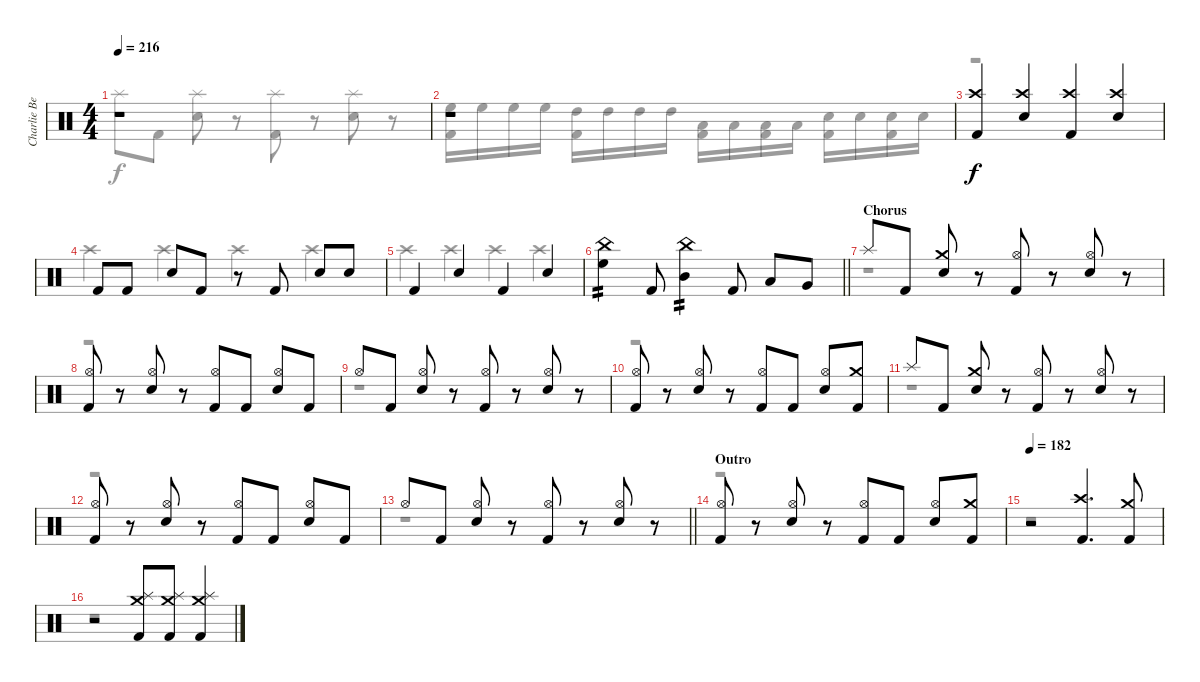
\track ("Charlie Benante" "Charlie Be") {instrument percussion}
\staff {score}
\articulation defaults
\voice
\ts (4 4)
\tempo 216
\clef neutral
\ks c
r.1{dy f} |
r.1 |
("Crash high (hit)" "Kick (hit) 2").4 ("Crash high (hit)" "Electric Snare (hit)").4 ("Crash high (hit)" "Kick (hit) 2").4 ("Crash high (hit)" "Electric Snare (hit)").4 |
"Kick (hit) 2".8 "Kick (hit) 2".8 "Electric Snare (hit)".8 "Kick (hit) 2".8 r.8 "Kick (hit) 2".8 "Electric Snare (hit)".8 "Electric Snare (hit)".8 |
"Kick (hit) 2".4 "Electric Snare (hit)".4 "Kick (hit) 2".4 "Electric Snare (hit)".4 |
\barLineRight lightlight
("China (hit)" "High Floor Tom (hit)").4{tp 2} "Kick (hit) 2".8 ("China (hit)" "Mid Tom (hit)").4{tp 2} "Kick (hit) 2".8 "Low Tom (hit)".8 "Very Low Tom (hit)".8 |
\section ("" "Chorus")
"Splash (hit)".8 "Kick (hit) 2".8 ("Crash medium (hit)" "Electric Snare (hit)").8 r.8 ("Hi-Hat (open)" "Kick (hit) 2").8 r.8 ("Hi-Hat (open)" "Electric Snare (hit)").8 r.8 |
("Hi-Hat (open)" "Kick (hit) 2").8 r.8 ("Hi-Hat (open)" "Electric Snare (hit)").8 r.8 ("Hi-Hat (open)" "Kick (hit) 2").8 "Kick (hit) 2".8 ("Hi-Hat (open)" "Electric Snare (hit)").8 "Kick (hit) 2".8 |
"Hi-Hat (open)".8 "Kick (hit) 2".8 ("Hi-Hat (open)" "Electric Snare (hit)").8 r.8 ("Hi-Hat (open)" "Kick (hit) 2").8 r.8 ("Hi-Hat (open)" "Electric Snare (hit)").8 r.8 |
("Hi-Hat (open)" "Kick (hit) 2").8 r.8 ("Hi-Hat (open)" "Electric Snare (hit)").8 r.8 ("Hi-Hat (open)" "Kick (hit) 2").8 "Kick (hit) 2".8 ("Hi-Hat (open)" "Electric Snare (hit)").8 ("Crash medium (hit)" "Kick (hit) 2").8 |
"Splash (hit)".8 "Kick (hit) 2".8 ("Crash medium (hit)" "Electric Snare (hit)").8 r.8 ("Hi-Hat (open)" "Kick (hit) 2").8 r.8 ("Hi-Hat (open)" "Electric Snare (hit)").8 r.8 |
("Hi-Hat (open)" "Kick (hit) 2").8 r.8 ("Hi-Hat (open)" "Electric Snare (hit)").8 r.8 ("Hi-Hat (open)" "Kick (hit) 2").8 "Kick (hit) 2".8 ("Hi-Hat (open)" "Electric Snare (hit)").8 "Kick (hit) 2".8 |
\barLineRight lightlight "Hi-Hat (open)".8 "Kick (hit) 2".8
("Hi-Hat (open)" "Electric Snare (hit)").8 r.8 ("Hi-Hat (open)" "Kick (hit) 2").8 r.8 ("Hi-Hat (open)" "Electric Snare (hit)").8 r.8 |
\section ("" "Outro")
("Hi-Hat (open)" "Kick (hit) 2").8 r.8 ("Hi-Hat (open)" "Electric Snare (hit)").8 r.8 ("Hi-Hat (open)" "Kick (hit) 2").8 "Kick (hit) 2".8 ("Hi-Hat (open)" "Electric Snare (hit)").8 ("Crash medium (hit)" "Kick (hit) 2").8 |
\tempo 182
r.2 ("Crash high (hit)" "Kick (hit) 2").4{d} ("Crash medium (hit)" "Kick (hit) 2").8 |
r.2 ("Crash medium (hit)" "Splash (hit)" "Kick (hit) 2").8 ("Crash medium (hit)" "Splash (hit)" "Kick (hit) 2").8 ("Crash medium (hit)" "Splash (hit)" "Kick (hit) 2").4
\voice
\clef neutral
\ottava regular
\simile none
\ks c "Splash (hit)".8{dy f} "Kick (hit) 2".8
("Splash (hit)" "Electric Snare (hit)").8 r.8 ("Splash (hit)" "Kick (hit) 2").8 r.8 ("Splash (hit)" "Electric Snare (hit)").8 r.8 |
("High Floor Tom (hit)" "Kick (hit) 2").16 "High Floor Tom (hit)".16 "High Floor Tom (hit)".16 "High Floor Tom (hit)".16 ("High Tom (hit)" "Kick (hit) 2").16 "High Tom (hit)".16 "High Tom (hit)".16 "High Tom (hit)".16 ("Low Tom (hit)" "Kick (hit) 2").16 "Low Tom (hit)".16 ("Low Tom (hit)" "Kick (hit) 2").16 "Low Tom (hit)".16 ("Electric Snare (hit)" "Kick (hit) 2").16 "Electric Snare (hit)".16 ("Electric Snare (hit)" "Kick (hit) 2").16 "Electric Snare (hit)".16 |
r.1 |
"Crash high (hit)".4 "Crash high (hit)".4 "Crash high (hit)".4 "Crash high (hit)".4 |
"Crash high (hit)".4 "Crash high (hit)".4 "Crash high (hit)".4 "Crash high (hit)".4 |
\barLineRight lightlight
|
r.1 |
r.1 |
r.1 |
r.1 |
r.1 |
r.1 |
\barLineRight lightlight
r.1 |
r.1 |
r.1 |
r.1
